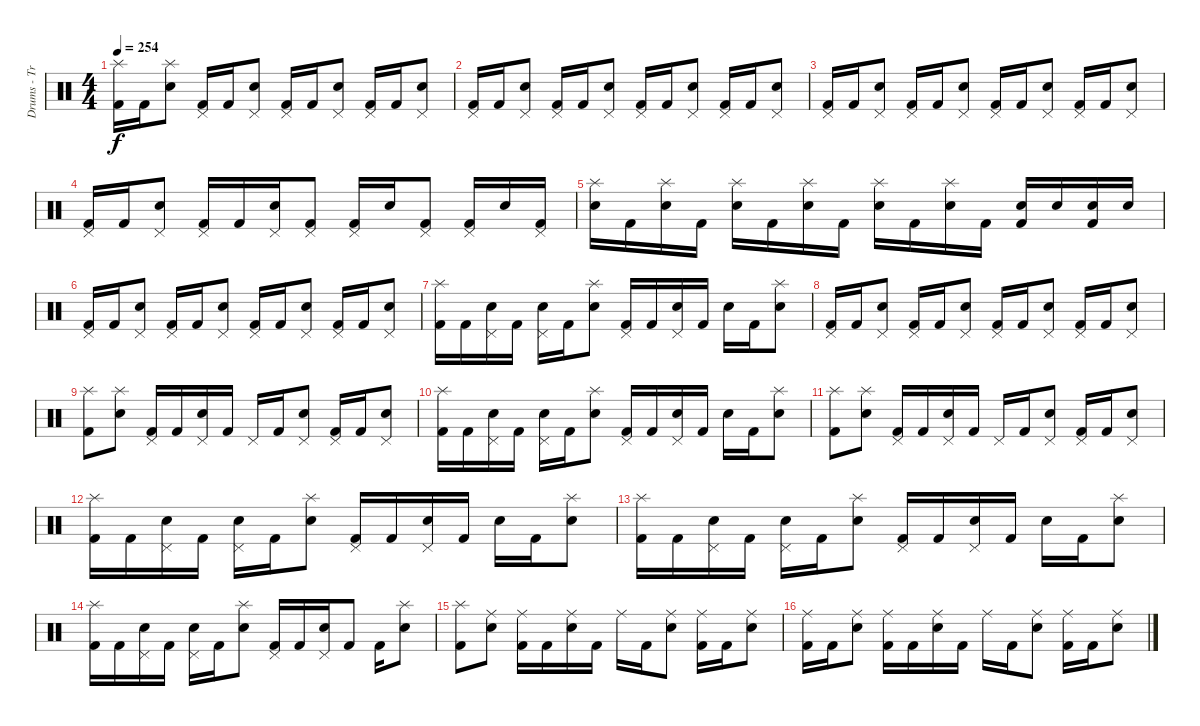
\track ("Drums - Travis Barker" "Drums - Tr") {instrument percussion}
\staff {score}
\articulation defaults
\ts (4 4)
\tempo 254
\clef neutral
\ks c
("Splash (hit)" "Kick (hit) 2").16{dy f} "Kick (hit) 2".16 ("Splash (hit)" "Electric Snare (hit)").8 ("Pedal Hi-Hat (hit)" "Kick (hit) 2").16 "Kick (hit) 2".16 ("Pedal Hi-Hat (hit)" "Electric Snare (hit)").8 ("Pedal Hi-Hat (hit)" "Kick (hit) 2").16 "Kick (hit) 2".16 ("Pedal Hi-Hat (hit)" "Electric Snare (hit)").8 ("Pedal Hi-Hat (hit)" "Kick (hit) 2").16 "Kick (hit) 2".16 ("Pedal Hi-Hat (hit)" "Electric Snare (hit)").8 |
("Pedal Hi-Hat (hit)" "Kick (hit) 2").16 "Kick (hit) 2".16 ("Pedal Hi-Hat (hit)" "Electric Snare (hit)").8 ("Pedal Hi-Hat (hit)" "Kick (hit) 2").16 "Kick (hit) 2".16 ("Pedal Hi-Hat (hit)" "Electric Snare (hit)").8 ("Pedal Hi-Hat (hit)" "Kick (hit) 2").16 "Kick (hit) 2".16 ("Pedal Hi-Hat (hit)" "Electric Snare (hit)").8 ("Pedal Hi-Hat (hit)" "Kick (hit) 2").16 "Kick (hit) 2".16 ("Pedal Hi-Hat (hit)" "Electric Snare (hit)").8 |
("Pedal Hi-Hat (hit)" "Kick (hit) 2").16 "Kick (hit) 2".16 ("Pedal Hi-Hat (hit)" "Electric Snare (hit)").8 ("Pedal Hi-Hat (hit)" "Kick (hit) 2").16 "Kick (hit) 2".16 ("Pedal Hi-Hat (hit)" "Electric Snare (hit)").8 ("Pedal Hi-Hat (hit)" "Kick (hit) 2").16 "Kick (hit) 2".16 ("Pedal Hi-Hat (hit)" "Electric Snare (hit)").8 ("Pedal Hi-Hat (hit)" "Kick (hit) 2").16 "Kick (hit) 2".16 ("Pedal Hi-Hat (hit)" "Electric Snare (hit)").8 |
("Pedal Hi-Hat (hit)" "Kick (hit) 2").16 "Kick (hit) 2".16 ("Pedal Hi-Hat (hit)" "Electric Snare (hit)").8 ("Pedal Hi-Hat (hit)" "Kick (hit) 2").16 "Kick (hit) 2".16 ("Pedal Hi-Hat (hit)" "Electric Snare (hit)").16 ("Pedal Hi-Hat (hit)" "Kick (hit) 2").8 ("Pedal Hi-Hat (hit)" "Kick (hit) 2").16 "Electric Snare (hit)".16 ("Pedal Hi-Hat (hit)" "Kick (hit) 2").8 ("Pedal Hi-Hat (hit)" "Kick (hit) 2").16 "Electric Snare (hit)".16 ("Pedal Hi-Hat (hit)" "Kick (hit) 2").16 |
("Splash (hit)" "Electric Snare (hit)").16 "Kick (hit) 2".16 ("Splash (hit)" "Electric Snare (hit)").16 "Kick (hit) 2".16 ("Splash (hit)" "Electric Snare (hit)").16 "Kick (hit) 2".16 ("Splash (hit)" "Electric Snare (hit)").16 "Kick (hit) 2".16 ("Splash (hit)" "Electric Snare (hit)").16 "Kick (hit) 2".16 ("Splash (hit)" "Electric Snare (hit)").16 "Kick (hit) 2".16 ("Electric Snare (hit)" "Kick (hit) 2").16 "Electric Snare (hit)".16 ("Electric Snare (hit)" "Kick (hit) 2").16 "Electric Snare (hit)".16 |
("Pedal Hi-Hat (hit)" "Kick (hit) 2").16 "Kick (hit) 2".16 ("Pedal Hi-Hat (hit)" "Electric Snare (hit)").8 ("Pedal Hi-Hat (hit)" "Kick (hit) 2").16 "Kick (hit) 2".16 ("Pedal Hi-Hat (hit)" "Electric Snare (hit)").8 ("Pedal Hi-Hat (hit)" "Kick (hit) 2").16 "Kick (hit) 2".16 ("Pedal Hi-Hat (hit)" "Electric Snare (hit)").8 ("Pedal Hi-Hat (hit)" "Kick (hit) 2").16 "Kick (hit) 2".16 ("Pedal Hi-Hat (hit)" "Electric Snare (hit)").8 |
("Splash (hit)" "Kick (hit) 2").16 "Kick (hit) 2".16 ("Pedal Hi-Hat (hit)" "Electric Snare (hit)").16 "Kick (hit) 2".16 ("Pedal Hi-Hat (hit)" "Electric Snare (hit)").16 "Kick (hit) 2".16 ("Splash (hit)" "Electric Snare (hit)").8 ("Pedal Hi-Hat (hit)" "Kick (hit) 2").16 "Kick (hit) 2".16 ("Pedal Hi-Hat (hit)" "Electric Snare (hit)").16 "Kick (hit) 2".16 "Electric Snare (hit)".16 "Kick (hit) 2".16 ("Splash (hit)" "Electric Snare (hit)").8 |
("Pedal Hi-Hat (hit)" "Kick (hit) 2").16 "Kick (hit) 2".16 ("Pedal Hi-Hat (hit)" "Electric Snare (hit)").8 ("Pedal Hi-Hat (hit)" "Kick (hit) 2").16 "Kick (hit) 2".16 ("Pedal Hi-Hat (hit)" "Electric Snare (hit)").8 ("Pedal Hi-Hat (hit)" "Kick (hit) 2").16 "Kick (hit) 2".16 ("Pedal Hi-Hat (hit)" "Electric Snare (hit)").8 ("Pedal Hi-Hat (hit)" "Kick (hit) 2").16 "Kick (hit) 2".16 ("Pedal Hi-Hat (hit)" "Electric Snare (hit)").8 |
("Splash (hit)" "Kick (hit) 2").8 ("Splash (hit)" "Electric Snare (hit)").8 ("Pedal Hi-Hat (hit)" "Kick (hit) 2").16 "Kick (hit) 2".16 ("Pedal Hi-Hat (hit)" "Electric Snare (hit)").16 "Kick (hit) 2".16 "Pedal Hi-Hat (hit)".16 "Kick (hit) 2".16 ("Pedal Hi-Hat (hit)" "Electric Snare (hit)").8 ("Pedal Hi-Hat (hit)" "Kick (hit) 2").16 "Kick (hit) 2".16 ("Pedal Hi-Hat (hit)" "Electric Snare (hit)").8 |
("Splash (hit)" "Kick (hit) 2").16 "Kick (hit) 2".16 ("Pedal Hi-Hat (hit)" "Electric Snare (hit)").16 "Kick (hit) 2".16 ("Pedal Hi-Hat (hit)" "Electric Snare (hit)").16 "Kick (hit) 2".16 ("Splash (hit)" "Electric Snare (hit)").8 ("Pedal Hi-Hat (hit)" "Kick (hit) 2").16 "Kick (hit) 2".16 ("Pedal Hi-Hat (hit)" "Electric Snare (hit)").16 "Kick (hit) 2".16 "Electric Snare (hit)".16 "Kick (hit) 2".16 ("Splash (hit)" "Electric Snare (hit)").8 |
("Splash (hit)" "Kick (hit) 2").8 ("Splash (hit)" "Electric Snare (hit)").8 ("Pedal Hi-Hat (hit)" "Kick (hit) 2").16 "Kick (hit) 2".16 ("Pedal Hi-Hat (hit)" "Electric Snare (hit)").16 "Kick (hit) 2".16 "Pedal Hi-Hat (hit)".16 "Kick (hit) 2".16 ("Pedal Hi-Hat (hit)" "Electric Snare (hit)").8 ("Pedal Hi-Hat (hit)" "Kick (hit) 2").16 "Kick (hit) 2".16 ("Pedal Hi-Hat (hit)" "Electric Snare (hit)").8 |
("Splash (hit)" "Kick (hit) 2").16 "Kick (hit) 2".16 ("Pedal Hi-Hat (hit)" "Electric Snare (hit)").16 "Kick (hit) 2".16 ("Pedal Hi-Hat (hit)" "Electric Snare (hit)").16 "Kick (hit) 2".16 ("Splash (hit)" "Electric Snare (hit)").8 ("Pedal Hi-Hat (hit)" "Kick (hit) 2").16 "Kick (hit) 2".16 ("Pedal Hi-Hat (hit)" "Electric Snare (hit)").16 "Kick (hit) 2".16 "Electric Snare (hit)".16 "Kick (hit) 2".16 ("Splash (hit)" "Electric Snare (hit)").8 |
("Splash (hit)" "Kick (hit) 2").16 "Kick (hit) 2".16 ("Pedal Hi-Hat (hit)" "Electric Snare (hit)").16 "Kick (hit) 2".16 ("Pedal Hi-Hat (hit)" "Electric Snare (hit)").16 "Kick (hit) 2".16 ("Splash (hit)" "Electric Snare (hit)").8 ("Pedal Hi-Hat (hit)" "Kick (hit) 2").16 "Kick (hit) 2".16 ("Pedal Hi-Hat (hit)" "Electric Snare (hit)").16 "Kick (hit) 2".16 "Electric Snare (hit)".16 "Kick (hit) 2".16 ("Splash (hit)" "Electric Snare (hit)").8 |
("Splash (hit)" "Kick (hit) 2").16 "Kick (hit) 2".16 ("Pedal Hi-Hat (hit)" "Electric Snare (hit)").16 "Kick (hit) 2".16 ("Pedal Hi-Hat (hit)" "Electric Snare (hit)").16 "Kick (hit) 2".16 ("Splash (hit)" "Electric Snare (hit)").8 ("Pedal Hi-Hat (hit)" "Kick (hit) 2").16 "Kick (hit) 2".16 ("Pedal Hi-Hat (hit)" "Electric Snare (hit)").16 "Kick (hit) 2".8 "Kick (hit) 2".16 ("Splash (hit)" "Electric Snare (hit)").8 |
("Splash (hit)" "Kick (hit) 2").8 ("Ride (middle)" "Electric Snare (hit)").8 ("Ride (middle)" "Kick (hit) 2").16 "Kick (hit) 2".16 ("Ride (middle)" "Electric Snare (hit)").16 "Kick (hit) 2".16 "Ride (middle)".16 "Kick (hit) 2".16 ("Ride (middle)" "Electric Snare (hit)").8 ("Ride (middle)" "Kick (hit) 2").16 "Kick (hit) 2".16 ("Ride (middle)" "Electric Snare (hit)").8 |
("Ride (middle)" "Kick (hit) 2").16 "Kick (hit) 2".16 ("Ride (middle)" "Electric Snare (hit)").8 ("Ride (middle)" "Kick (hit) 2").16 "Kick (hit) 2".16 ("Ride (middle)" "Electric Snare (hit)").16 "Kick (hit) 2".16 "Ride (middle)".16 "Kick (hit) 2".16 ("Ride (middle)" "Electric Snare (hit)").8 ("Ride (middle)" "Kick (hit) 2").16 "Kick (hit) 2".16 ("Ride (middle)" "Electric Snare (hit)").8
